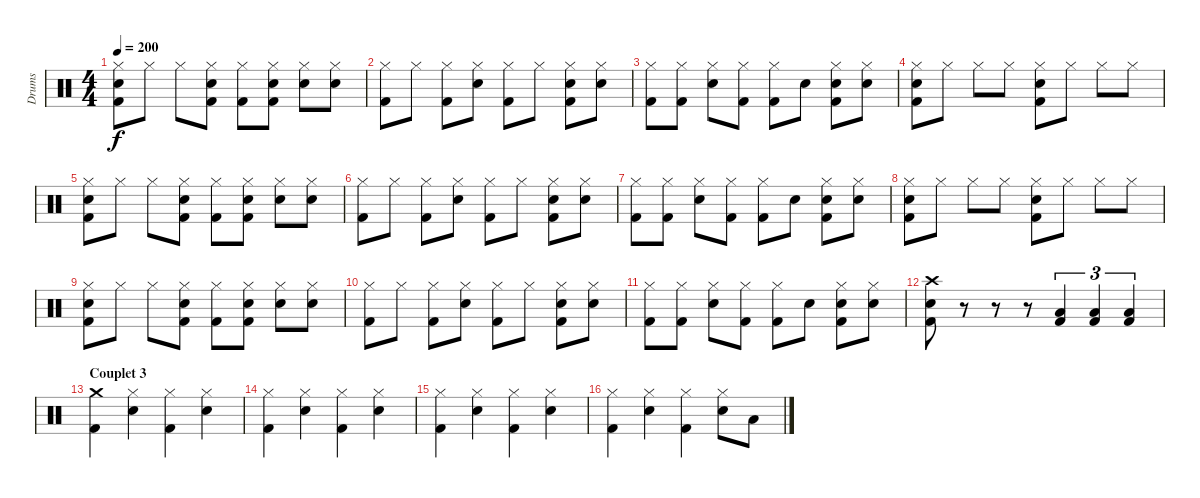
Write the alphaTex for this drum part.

\track ("Drums" "Drums") {instrument percussion}
\staff {score}
\articulation defaults
\ts (4 4)
\tempo 200
\clef neutral
\ks c
("Hi-Hat (closed)" "Snare (hit) 2" "Kick (hit) 2").8{dy f} "Hi-Hat (closed)".8 "Hi-Hat (closed)".8 ("Hi-Hat (closed)" "Snare (hit) 2" "Kick (hit) 2").8 ("Hi-Hat (closed)" "Kick (hit) 2").8 ("Hi-Hat (closed)" "Snare (hit) 2" "Kick (hit) 2").8 ("Hi-Hat (closed)" "Snare (hit) 2").8 ("Hi-Hat (closed)" "Snare (hit) 2").8 |
("Hi-Hat (closed)" "Kick (hit) 2").8 "Hi-Hat (closed)".8 ("Hi-Hat (closed)" "Kick (hit) 2").8 ("Hi-Hat (closed)" "Snare (hit) 2").8 ("Hi-Hat (closed)" "Kick (hit) 2").8 "Hi-Hat (closed)".8 ("Hi-Hat (closed)" "Snare (hit) 2" "Kick (hit) 2").8 ("Hi-Hat (closed)" "Snare (hit) 2").8 |
("Hi-Hat (closed)" "Kick (hit) 2").8 ("Hi-Hat (closed)" "Kick (hit) 2").8 ("Hi-Hat (closed)" "Snare (hit) 2").8 ("Hi-Hat (closed)" "Kick (hit) 2").8 ("Hi-Hat (closed)" "Kick (hit) 2").8 "Snare (hit) 2".8 ("Hi-Hat (closed)" "Snare (hit) 2" "Kick (hit) 2").8 ("Hi-Hat (closed)" "Snare (hit) 2").8 |
("Hi-Hat (closed)" "Snare (hit) 2" "Kick (hit) 2").8 "Hi-Hat (closed)".8 "Hi-Hat (closed)".8 "Hi-Hat (closed)".8 ("Hi-Hat (closed)" "Snare (hit) 2" "Kick (hit) 2").8 "Hi-Hat (closed)".8 "Hi-Hat (closed)".8 "Hi-Hat (closed)".8 |
("Hi-Hat (closed)" "Snare (hit) 2" "Kick (hit) 2").8 "Hi-Hat (closed)".8 "Hi-Hat (closed)".8 ("Hi-Hat (closed)" "Snare (hit) 2" "Kick (hit) 2").8 ("Hi-Hat (closed)" "Kick (hit) 2").8 ("Hi-Hat (closed)" "Snare (hit) 2" "Kick (hit) 2").8 ("Hi-Hat (closed)" "Snare (hit) 2").8 ("Hi-Hat (closed)" "Snare (hit) 2").8 |
("Hi-Hat (closed)" "Kick (hit) 2").8 "Hi-Hat (closed)".8 ("Hi-Hat (closed)" "Kick (hit) 2").8 ("Hi-Hat (closed)" "Snare (hit) 2").8 ("Hi-Hat (closed)" "Kick (hit) 2").8 "Hi-Hat (closed)".8 ("Hi-Hat (closed)" "Snare (hit) 2" "Kick (hit) 2").8 ("Hi-Hat (closed)" "Snare (hit) 2").8 |
("Hi-Hat (closed)" "Kick (hit) 2").8 ("Hi-Hat (closed)" "Kick (hit) 2").8 ("Hi-Hat (closed)" "Snare (hit) 2").8 ("Hi-Hat (closed)" "Kick (hit) 2").8 ("Hi-Hat (closed)" "Kick (hit) 2").8 "Snare (hit) 2".8 ("Hi-Hat (closed)" "Snare (hit) 2" "Kick (hit) 2").8 ("Hi-Hat (closed)" "Snare (hit) 2").8 |
("Hi-Hat (closed)" "Snare (hit) 2" "Kick (hit) 2").8 "Hi-Hat (closed)".8 "Hi-Hat (closed)".8 "Hi-Hat (closed)".8 ("Hi-Hat (closed)" "Snare (hit) 2" "Kick (hit) 2").8 "Hi-Hat (closed)".8 "Hi-Hat (closed)".8 "Hi-Hat (closed)".8 |
("Hi-Hat (closed)" "Snare (hit) 2" "Kick (hit) 2").8 "Hi-Hat (closed)".8 "Hi-Hat (closed)".8 ("Hi-Hat (closed)" "Snare (hit) 2" "Kick (hit) 2").8 ("Hi-Hat (closed)" "Kick (hit) 2").8 ("Hi-Hat (closed)" "Snare (hit) 2" "Kick (hit) 2").8 ("Hi-Hat (closed)" "Snare (hit) 2").8 ("Hi-Hat (closed)" "Snare (hit) 2").8 |
("Hi-Hat (closed)" "Kick (hit) 2").8 "Hi-Hat (closed)".8 ("Hi-Hat (closed)" "Kick (hit) 2").8 ("Hi-Hat (closed)" "Snare (hit) 2").8 ("Hi-Hat (closed)" "Kick (hit) 2").8 "Hi-Hat (closed)".8 ("Hi-Hat (closed)" "Snare (hit) 2" "Kick (hit) 2").8 ("Hi-Hat (closed)" "Snare (hit) 2").8 |
("Hi-Hat (closed)" "Kick (hit) 2").8 ("Hi-Hat (closed)" "Kick (hit) 2").8 ("Hi-Hat (closed)" "Snare (hit) 2").8 ("Hi-Hat (closed)" "Kick (hit) 2").8 ("Hi-Hat (closed)" "Kick (hit) 2").8 "Snare (hit) 2".8 ("Hi-Hat (closed)" "Snare (hit) 2" "Kick (hit) 2").8 ("Hi-Hat (closed)" "Snare (hit) 2").8 |
("Crash high (hit)" "Snare (hit) 2" "Kick (hit) 2").8 r.8 r.8 r.8 ("Low Tom (hit)" "Kick (hit) 2").4{tu (3 2)} ("Low Tom (hit)" "Kick (hit) 2").4{tu (3 2)} ("Low Tom (hit)" "Kick (hit) 2").4{tu (3 2)} |
\section ("" "Couplet 3")
("Crash medium (hit)" "Kick (hit) 2").4 ("Hi-Hat (closed)" "Snare (hit) 2").4 ("Hi-Hat (closed)" "Kick (hit) 2").4 ("Hi-Hat (closed)" "Snare (hit) 2").4 |
("Hi-Hat (closed)" "Kick (hit) 2").4 ("Hi-Hat (closed)" "Snare (hit) 2").4 ("Hi-Hat (closed)" "Kick (hit) 2").4 ("Hi-Hat (closed)" "Snare (hit) 2").4 |
("Hi-Hat (closed)" "Kick (hit) 2").4 ("Hi-Hat (closed)" "Snare (hit) 2").4 ("Hi-Hat (closed)" "Kick (hit) 2").4 ("Hi-Hat (closed)" "Snare (hit) 2").4 |
("Hi-Hat (closed)" "Kick (hit) 2").4 ("Hi-Hat (closed)" "Snare (hit) 2").4 ("Hi-Hat (closed)" "Kick (hit) 2").4 ("Hi-Hat (closed)" "Snare (hit) 2").8 "Low Floor Tom (hit)".8
